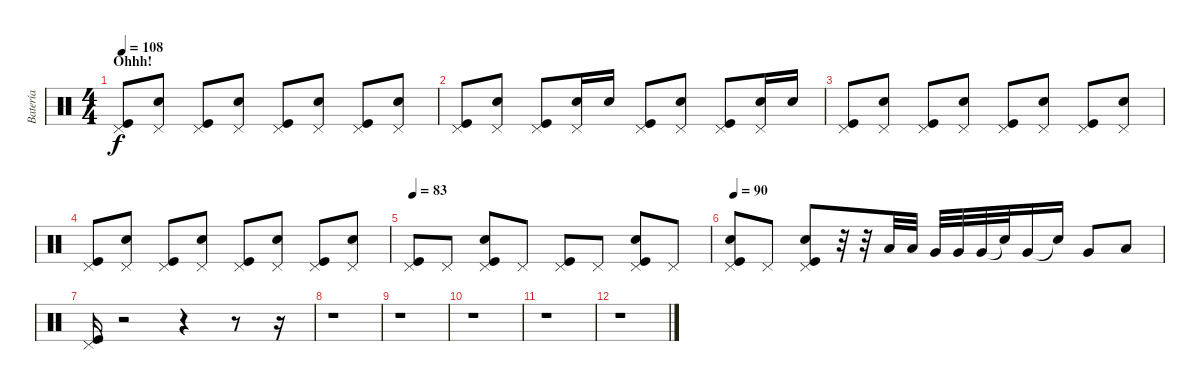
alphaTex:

\track ("Batería" "Batería") {instrument percussion}
\staff {score}
\articulation defaults
\ts (4 4)
\section ("" "Ohhh!")
\tempo 108
\clef neutral
\ks c
("Pedal Hi-Hat (hit)" "Kick (hit)").8{dy f} ("Pedal Hi-Hat (hit)" "Electric Snare (hit)").8 ("Pedal Hi-Hat (hit)" "Kick (hit)").8 ("Pedal Hi-Hat (hit)" "Electric Snare (hit)").8 ("Pedal Hi-Hat (hit)" "Kick (hit)").8 ("Pedal Hi-Hat (hit)" "Electric Snare (hit)").8 ("Pedal Hi-Hat (hit)" "Kick (hit)").8 ("Pedal Hi-Hat (hit)" "Electric Snare (hit)").8 |
("Pedal Hi-Hat (hit)" "Kick (hit)").8 ("Pedal Hi-Hat (hit)" "Electric Snare (hit)").8 ("Pedal Hi-Hat (hit)" "Kick (hit)").8 ("Pedal Hi-Hat (hit)" "Electric Snare (hit)").16 "Electric Snare (hit)".16 ("Pedal Hi-Hat (hit)" "Kick (hit)").8 ("Pedal Hi-Hat (hit)" "Electric Snare (hit)").8 ("Pedal Hi-Hat (hit)" "Kick (hit)").8 ("Pedal Hi-Hat (hit)" "Electric Snare (hit)").16 "Electric Snare (hit)".16 |
("Pedal Hi-Hat (hit)" "Kick (hit)").8 ("Pedal Hi-Hat (hit)" "Electric Snare (hit)").8 ("Pedal Hi-Hat (hit)" "Kick (hit)").8 ("Pedal Hi-Hat (hit)" "Electric Snare (hit)").8 ("Pedal Hi-Hat (hit)" "Kick (hit)").8 ("Pedal Hi-Hat (hit)" "Electric Snare (hit)").8 ("Pedal Hi-Hat (hit)" "Kick (hit)").8 ("Pedal Hi-Hat (hit)" "Electric Snare (hit)").8 |
("Pedal Hi-Hat (hit)" "Kick (hit)").8 ("Pedal Hi-Hat (hit)" "Electric Snare (hit)").8 ("Pedal Hi-Hat (hit)" "Kick (hit)").8 ("Pedal Hi-Hat (hit)" "Electric Snare (hit)").8 ("Pedal Hi-Hat (hit)" "Kick (hit)").8 ("Pedal Hi-Hat (hit)" "Electric Snare (hit)").8 ("Pedal Hi-Hat (hit)" "Kick (hit)").8 ("Pedal Hi-Hat (hit)" "Electric Snare (hit)").8 |
\tempo 83
("Pedal Hi-Hat (hit)" "Kick (hit)").8 "Pedal Hi-Hat (hit)".8 ("Pedal Hi-Hat (hit)" "Electric Snare (hit)" "Kick (hit)").8 "Pedal Hi-Hat (hit)".8 ("Pedal Hi-Hat (hit)" "Kick (hit)").8 "Pedal Hi-Hat (hit)".8 ("Pedal Hi-Hat (hit)" "Electric Snare (hit)" "Kick (hit)").8 "Pedal Hi-Hat (hit)".8 |
\tempo 90
("Pedal Hi-Hat (hit)" "Electric Snare (hit)" "Kick (hit)").8 "Pedal Hi-Hat (hit)".8 ("Pedal Hi-Hat (hit)" "Electric Snare (hit)" "Kick (hit)").8 r.32 r.32 "Low Floor Tom (hit)".32 "Low Floor Tom (hit)".32 "Very Low Tom (hit)".32 "Very Low Tom (hit)".32 "Very Low Tom (hit)".32 "Snare (hit)"{t}.32 "Very Low Tom (hit)".16 "Snare (hit)"{t}.16 "Very Low Tom (hit)".8 "Low Tom (hit)".8 |
("Pedal Hi-Hat (hit)" "Kick (hit)").16 r.2 r.4 r.8 r.16 |
r.1 |
r.1 |
r.1 |
r.1 |
r.1
